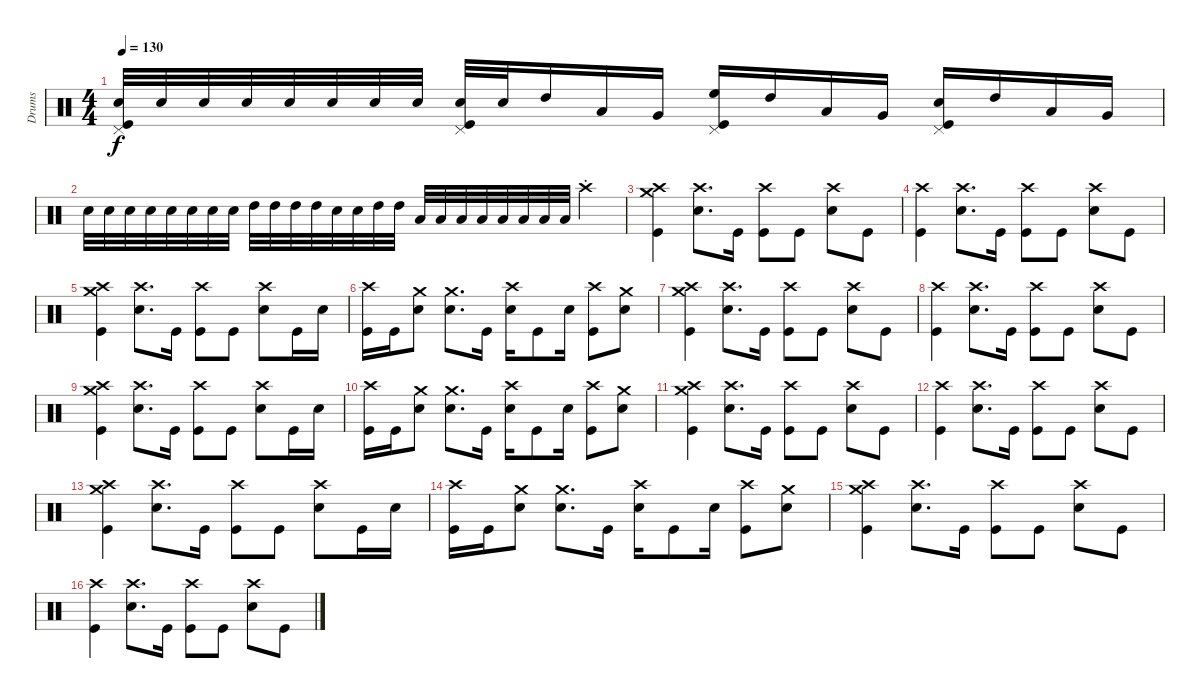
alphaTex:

\track ("Drums" "Drums") {instrument percussion}
\staff {score}
\articulation defaults
\ts (4 4)
\tempo 130
\clef neutral
\ks c
("Pedal Hi-Hat (hit)" "Snare (hit) 2" "Kick (hit)").32{dy f volume 7} "Snare (hit) 2".32{volume 13} "Snare (hit) 2".32 "Snare (hit) 2".32 "Snare (hit) 2".32 "Snare (hit) 2".32 "Snare (hit) 2".32 "Snare (hit) 2".32 ("Pedal Hi-Hat (hit)" "Snare (hit) 2" "Kick (hit)").32 "Snare (hit) 2".32 "High Tom (hit)".16 "Low Tom (hit)".16 "Very Low Tom (hit)".16 ("Pedal Hi-Hat (hit)" "High Floor Tom (hit)" "Kick (hit)").16 "High Tom (hit)".16 "Low Tom (hit)".16 "Very Low Tom (hit)".16 ("Pedal Hi-Hat (hit)" "Snare (hit) 2" "Kick (hit)").16 "High Tom (hit)".16 "Low Tom (hit)".16 "Very Low Tom (hit)".16 |
"Snare (hit) 2".32 "Snare (hit) 2".32 "Snare (hit) 2".32 "Snare (hit) 2".32 "Snare (hit) 2".32 "Snare (hit) 2".32 "Snare (hit) 2".32 "Snare (hit) 2".32 "High Tom (hit)".32 "High Tom (hit)".32 "High Tom (hit)".32 "High Tom (hit)".32 "Snare (hit) 2".32 "Snare (hit) 2".32 "High Tom (hit)".32 "High Tom (hit)".32 "Low Tom (hit)".32 "Low Tom (hit)".32 "Low Tom (hit)".32 "Low Tom (hit)".32 "Low Tom (hit)".32 "Low Tom (hit)".32 "Low Tom (hit)".32 "Low Tom (hit)".32 "Crash high (hit)"{st}.4 |
("Crash high (hit)" "Crash medium (hit)" "Kick (hit)").4 ("Crash high (hit)" "Snare (hit) 2").8{d} "Kick (hit)".16 ("Crash high (hit)" "Kick (hit)").8 "Kick (hit)".8 ("Crash high (hit)" "Snare (hit) 2").8 "Kick (hit)".8 |
("Crash high (hit)" "Kick (hit)").4 ("Crash high (hit)" "Snare (hit) 2").8{d} "Kick (hit)".16 ("Crash high (hit)" "Kick (hit)").8 "Kick (hit)".8 ("Crash high (hit)" "Snare (hit) 2").8 "Kick (hit)".8 |
("Crash high (hit)" "Crash medium (hit)" "Kick (hit)").4 ("Crash high (hit)" "Snare (hit) 2").8{d} "Kick (hit)".16 ("Crash high (hit)" "Kick (hit)").8 "Kick (hit)".8 ("Crash high (hit)" "Snare (hit) 2").8 "Kick (hit)".16 "Snare (hit) 2".16 |
("Crash high (hit)" "Kick (hit)").16 "Kick (hit)".16 ("Crash medium (hit)" "Snare (hit) 2").8 ("Crash medium (hit)" "Snare (hit) 2").8{d} "Kick (hit)".16 ("Crash high (hit)" "Snare (hit) 2").16 "Kick (hit)".8 "Snare (hit) 2".16 ("Crash high (hit)" "Kick (hit)").8 ("Crash medium (hit)" "Snare (hit) 2").8 |
("Crash high (hit)" "Crash medium (hit)" "Kick (hit)").4 ("Crash high (hit)" "Snare (hit) 2").8{d} "Kick (hit)".16 ("Crash high (hit)" "Kick (hit)").8 "Kick (hit)".8 ("Crash high (hit)" "Snare (hit) 2").8 "Kick (hit)".8 |
("Crash high (hit)" "Kick (hit)").4 ("Crash high (hit)" "Snare (hit) 2").8{d} "Kick (hit)".16 ("Crash high (hit)" "Kick (hit)").8 "Kick (hit)".8 ("Crash high (hit)" "Snare (hit) 2").8 "Kick (hit)".8 |
("Crash high (hit)" "Crash medium (hit)" "Kick (hit)").4 ("Crash high (hit)" "Snare (hit) 2").8{d} "Kick (hit)".16 ("Crash high (hit)" "Kick (hit)").8 "Kick (hit)".8 ("Crash high (hit)" "Snare (hit) 2").8 "Kick (hit)".16 "Snare (hit) 2".16 |
("Crash high (hit)" "Kick (hit)").16 "Kick (hit)".16 ("Crash medium (hit)" "Snare (hit) 2").8 ("Crash medium (hit)" "Snare (hit) 2").8{d} "Kick (hit)".16 ("Crash high (hit)" "Snare (hit) 2").16 "Kick (hit)".8 "Snare (hit) 2".16 ("Crash high (hit)" "Kick (hit)").8 ("Crash medium (hit)" "Snare (hit) 2").8 |
("Crash high (hit)" "Crash medium (hit)" "Kick (hit)").4 ("Crash high (hit)" "Snare (hit) 2").8{d} "Kick (hit)".16 ("Crash high (hit)" "Kick (hit)").8 "Kick (hit)".8 ("Crash high (hit)" "Snare (hit) 2").8 "Kick (hit)".8 |
("Crash high (hit)" "Kick (hit)").4 ("Crash high (hit)" "Snare (hit) 2").8{d} "Kick (hit)".16 ("Crash high (hit)" "Kick (hit)").8 "Kick (hit)".8 ("Crash high (hit)" "Snare (hit) 2").8 "Kick (hit)".8 |
("Crash high (hit)" "Crash medium (hit)" "Kick (hit)").4 ("Crash high (hit)" "Snare (hit) 2").8{d} "Kick (hit)".16 ("Crash high (hit)" "Kick (hit)").8 "Kick (hit)".8 ("Crash high (hit)" "Snare (hit) 2").8 "Kick (hit)".16 "Snare (hit) 2".16 |
("Crash high (hit)" "Kick (hit)").16 "Kick (hit)".16 ("Crash medium (hit)" "Snare (hit) 2").8 ("Crash medium (hit)" "Snare (hit) 2").8{d} "Kick (hit)".16 ("Crash high (hit)" "Snare (hit) 2").16 "Kick (hit)".8 "Snare (hit) 2".16 ("Crash high (hit)" "Kick (hit)").8 ("Crash medium (hit)" "Snare (hit) 2").8 |
("Crash high (hit)" "Crash medium (hit)" "Kick (hit)").4 ("Crash high (hit)" "Snare (hit) 2").8{d} "Kick (hit)".16 ("Crash high (hit)" "Kick (hit)").8 "Kick (hit)".8 ("Crash high (hit)" "Snare (hit) 2").8 "Kick (hit)".8 |
("Crash high (hit)" "Kick (hit)").4 ("Crash high (hit)" "Snare (hit) 2").8{d} "Kick (hit)".16 ("Crash high (hit)" "Kick (hit)").8 "Kick (hit)".8 ("Crash high (hit)" "Snare (hit) 2").8 "Kick (hit)".8
